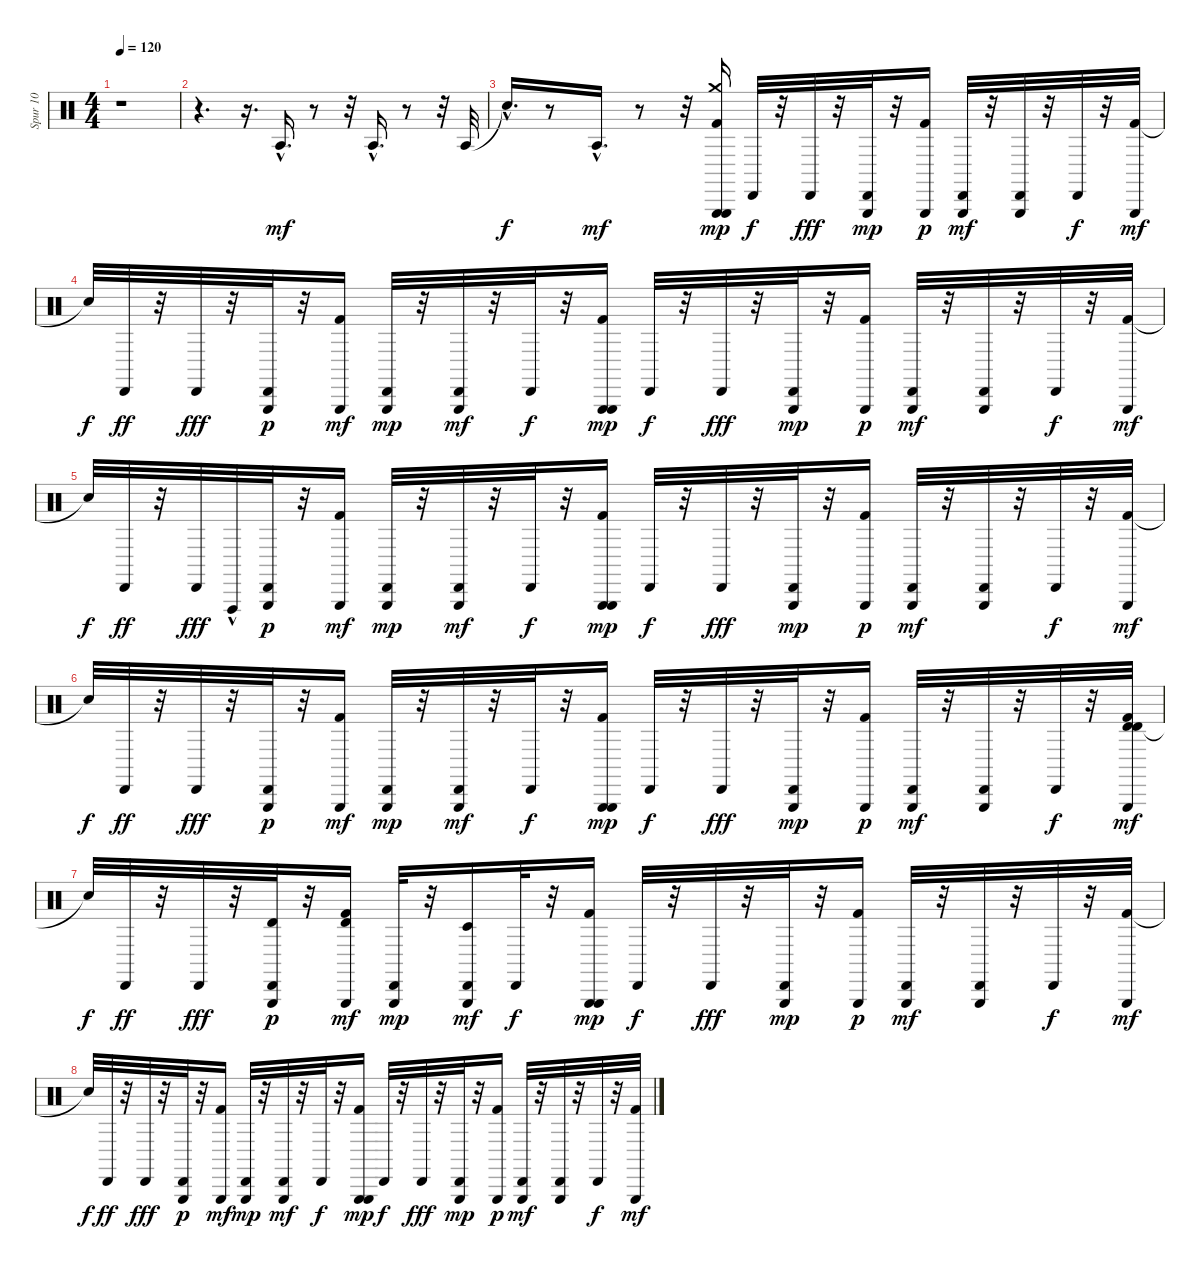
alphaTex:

\track ("Spur 10" "Spur 10") {instrument percussion}
\staff {score}
\articulation defaults
\ts (4 4)
\tempo 120
\clef neutral
\ks c
r.1{dy mf} |
r.4{d} r.16{d} "Agogo tow (hit)"{hac}.16{d} r.8 r.32 "Agogo tow (hit)"{hac}.16{d} r.8 r.32 "Agogo tow (hit)".32 |
"Snare (hit)"{hac t}.16{d dy f} r.8 "Agogo tow (hit)"{hac}.16{d dy mf} r.8 r.32 ("Crash medium (hit)" "Kick (hit) 2" "Triangle (hit)" "Triangle (hit)").16{dy mp} "Cabasa (hit)".32{dy f} r.32 "Cabasa (hit)".32{dy fff} r.32 ("Cabasa (hit)" "Triangle (hit)").32{dy mp} r.32 ("Kick (hit) 2" "Triangle (hit)").16{dy p} ("Triangle (hit)" "Cabasa (hit)").32{dy mf} r.32 ("Cabasa (hit)" "Triangle (hit)").32 r.32 "Cabasa (hit)".32{dy f} r.32 ("Kick (hit) 2" "Triangle (hit)").32{dy mf} |
"Snare (hit)"{t}.32{dy f} "Cabasa (hit)".32{dy ff} r.32 "Cabasa (hit)".32{dy fff} r.32 ("Cabasa (hit)" "Triangle (hit)").32{dy p} r.32 ("Kick (hit) 2" "Triangle (hit)").16{dy mf} ("Cabasa (hit)" "Triangle (hit)").32{dy mp} r.32 ("Cabasa (hit)" "Triangle (hit)").32{dy mf} r.32 "Cabasa (hit)".32{dy f} r.32 ("Kick (hit) 2" "Triangle (hit)" "Triangle (hit)").16{dy mp} "Cabasa (hit)".32{dy f} r.32 "Cabasa (hit)".32{dy fff} r.32 ("Cabasa (hit)" "Triangle (hit)").32{dy mp} r.32 ("Kick (hit) 2" "Triangle (hit)").16{dy p} ("Triangle (hit)" "Cabasa (hit)").32{dy mf} r.32 ("Cabasa (hit)" "Triangle (hit)").32 r.32 "Cabasa (hit)".32{dy f} r.32 ("Kick (hit) 2" "Triangle (hit)").32{dy mf} |
"Snare (hit)"{t}.32{dy f} "Cabasa (hit)".32{dy ff} r.32 "Cabasa (hit)".32{dy fff} "Vibraslap (hit)"{hac}.32 ("Cabasa (hit)" "Triangle (hit)").32{dy p} r.32 ("Kick (hit) 2" "Triangle (hit)").16{dy mf} ("Cabasa (hit)" "Triangle (hit)").32{dy mp} r.32 ("Cabasa (hit)" "Triangle (hit)").32{dy mf} r.32 "Cabasa (hit)".32{dy f} r.32 ("Kick (hit) 2" "Triangle (hit)" "Triangle (hit)").16{dy mp} "Cabasa (hit)".32{dy f} r.32 "Cabasa (hit)".32{dy fff} r.32 ("Cabasa (hit)" "Triangle (hit)").32{dy mp} r.32 ("Kick (hit) 2" "Triangle (hit)").16{dy p} ("Triangle (hit)" "Cabasa (hit)").32{dy mf} r.32 ("Cabasa (hit)" "Triangle (hit)").32 r.32 "Cabasa (hit)".32{dy f} r.32 ("Kick (hit) 2" "Triangle (hit)").32{dy mf} |
"Snare (hit)"{t}.32{dy f} "Cabasa (hit)".32{dy ff} r.32 "Cabasa (hit)".32{dy fff} r.32 ("Cabasa (hit)" "Triangle (hit)").32{dy p} r.32 ("Kick (hit) 2" "Triangle (hit)").16{dy mf} ("Cabasa (hit)" "Triangle (hit)").32{dy mp} r.32 ("Cabasa (hit)" "Triangle (hit)").32{dy mf} r.32 "Cabasa (hit)".32{dy f} r.32 ("Kick (hit) 2" "Triangle (hit)" "Triangle (hit)").16{dy mp} "Cabasa (hit)".32{dy f} r.32 "Cabasa (hit)".32{dy fff} r.32 ("Cabasa (hit)" "Triangle (hit)").32{dy mp} r.32 ("Kick (hit) 2" "Triangle (hit)").16{dy p} ("Triangle (hit)" "Cabasa (hit)").32{dy mf} r.32 ("Cabasa (hit)" "Triangle (hit)").32 r.32 "Cabasa (hit)".32{dy f} r.32 ("Timbale high (hit)" "Timbale high (hit)" "Kick (hit) 2" "Triangle (hit)").32{dy mf} |
"Snare (hit)"{t}.32{dy f} "Cabasa (hit)".32{dy ff} r.32 "Cabasa (hit)".32{dy fff} r.32 ("Timbale high (hit)" "Cabasa (hit)" "Triangle (hit)").32{dy p} r.32 ("Timbale high (hit)" "Kick (hit) 2" "Triangle (hit)").16{dy mf} ("Cabasa (hit)" "Triangle (hit)").32{dy mp} r.32 ("Timbale low (hit)" "Cabasa (hit)" "Triangle (hit)").16{dy mf} "Cabasa (hit)".32{dy f} r.32 ("Kick (hit) 2" "Triangle (hit)" "Triangle (hit)").16{dy mp} "Cabasa (hit)".32{dy f} r.32 "Cabasa (hit)".32{dy fff} r.32 ("Cabasa (hit)" "Triangle (hit)").32{dy mp} r.32 ("Kick (hit) 2" "Triangle (hit)").16{dy p} ("Triangle (hit)" "Cabasa (hit)").32{dy mf} r.32 ("Cabasa (hit)" "Triangle (hit)").32 r.32 "Cabasa (hit)".32{dy f} r.32 ("Kick (hit) 2" "Triangle (hit)").32{dy mf} |
"Snare (hit)"{t}.32{dy f} "Cabasa (hit)".32{dy ff} r.32 "Cabasa (hit)".32{dy fff} r.32 ("Cabasa (hit)" "Triangle (hit)").32{dy p} r.32 ("Kick (hit) 2" "Triangle (hit)").16{dy mf} ("Cabasa (hit)" "Triangle (hit)").32{dy mp} r.32 ("Cabasa (hit)" "Triangle (hit)").32{dy mf} r.32 "Cabasa (hit)".32{dy f} r.32 ("Kick (hit) 2" "Triangle (hit)" "Triangle (hit)").16{dy mp} "Cabasa (hit)".32{dy f} r.32 "Cabasa (hit)".32{dy fff} r.32 ("Cabasa (hit)" "Triangle (hit)").32{dy mp} r.32 ("Kick (hit) 2" "Triangle (hit)").16{dy p} ("Triangle (hit)" "Cabasa (hit)").32{dy mf} r.32 ("Cabasa (hit)" "Triangle (hit)").32 r.32 "Cabasa (hit)".32{dy f} r.32 ("Kick (hit) 2" "Triangle (hit)").32{dy mf}
